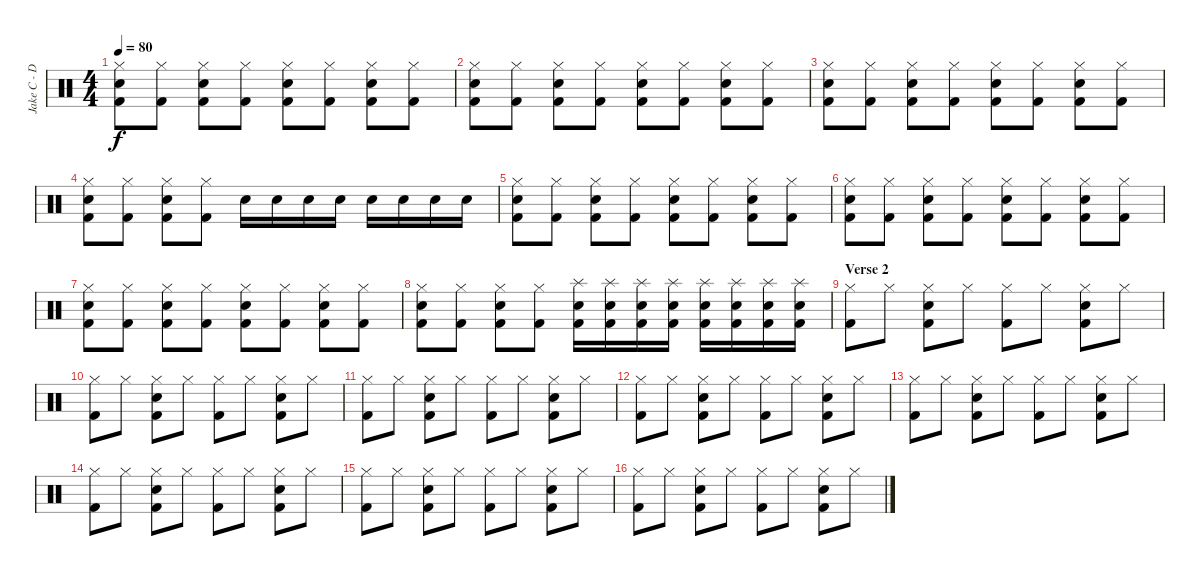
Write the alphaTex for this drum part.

\track ("Jake C - Drums" "Jake C - D") {instrument percussion}
\staff {score}
\articulation defaults
\ts (4 4)
\tempo 80
\clef neutral
\ks c
("Hi-Hat (closed)" "Electric Snare (hit)" "Kick (hit) 2").8{dy f} ("Hi-Hat (closed)" "Kick (hit) 2").8 ("Hi-Hat (closed)" "Electric Snare (hit)" "Kick (hit) 2").8 ("Hi-Hat (closed)" "Kick (hit) 2").8 ("Hi-Hat (closed)" "Electric Snare (hit)" "Kick (hit) 2").8 ("Hi-Hat (closed)" "Kick (hit) 2").8 ("Hi-Hat (closed)" "Electric Snare (hit)" "Kick (hit) 2").8 ("Hi-Hat (closed)" "Kick (hit) 2").8 |
("Hi-Hat (closed)" "Electric Snare (hit)" "Kick (hit) 2").8 ("Hi-Hat (closed)" "Kick (hit) 2").8 ("Hi-Hat (closed)" "Electric Snare (hit)" "Kick (hit) 2").8 ("Hi-Hat (closed)" "Kick (hit) 2").8 ("Hi-Hat (closed)" "Electric Snare (hit)" "Kick (hit) 2").8 ("Hi-Hat (closed)" "Kick (hit) 2").8 ("Hi-Hat (closed)" "Electric Snare (hit)" "Kick (hit) 2").8 ("Hi-Hat (closed)" "Kick (hit) 2").8 |
("Hi-Hat (closed)" "Electric Snare (hit)" "Kick (hit) 2").8 ("Hi-Hat (closed)" "Kick (hit) 2").8 ("Hi-Hat (closed)" "Electric Snare (hit)" "Kick (hit) 2").8 ("Hi-Hat (closed)" "Kick (hit) 2").8 ("Hi-Hat (closed)" "Electric Snare (hit)" "Kick (hit) 2").8 ("Hi-Hat (closed)" "Kick (hit) 2").8 ("Hi-Hat (closed)" "Electric Snare (hit)" "Kick (hit) 2").8 ("Hi-Hat (closed)" "Kick (hit) 2").8 |
("Hi-Hat (closed)" "Electric Snare (hit)" "Kick (hit) 2").8 ("Hi-Hat (closed)" "Kick (hit) 2").8 ("Hi-Hat (closed)" "Electric Snare (hit)" "Kick (hit) 2").8 ("Hi-Hat (closed)" "Kick (hit) 2").8 "Electric Snare (hit)".16 "Electric Snare (hit)".16 "Electric Snare (hit)".16 "Electric Snare (hit)".16 "Electric Snare (hit)".16 "Electric Snare (hit)".16 "Electric Snare (hit)".16 "Electric Snare (hit)".16 |
("Hi-Hat (closed)" "Electric Snare (hit)" "Kick (hit) 2").8 ("Hi-Hat (closed)" "Kick (hit) 2").8 ("Hi-Hat (closed)" "Electric Snare (hit)" "Kick (hit) 2").8 ("Hi-Hat (closed)" "Kick (hit) 2").8 ("Hi-Hat (closed)" "Electric Snare (hit)" "Kick (hit) 2").8 ("Hi-Hat (closed)" "Kick (hit) 2").8 ("Hi-Hat (closed)" "Electric Snare (hit)" "Kick (hit) 2").8 ("Hi-Hat (closed)" "Kick (hit) 2").8 |
("Hi-Hat (closed)" "Electric Snare (hit)" "Kick (hit) 2").8 ("Hi-Hat (closed)" "Kick (hit) 2").8 ("Hi-Hat (closed)" "Electric Snare (hit)" "Kick (hit) 2").8 ("Hi-Hat (closed)" "Kick (hit) 2").8 ("Hi-Hat (closed)" "Electric Snare (hit)" "Kick (hit) 2").8 ("Hi-Hat (closed)" "Kick (hit) 2").8 ("Hi-Hat (closed)" "Electric Snare (hit)" "Kick (hit) 2").8 ("Hi-Hat (closed)" "Kick (hit) 2").8 |
("Hi-Hat (closed)" "Electric Snare (hit)" "Kick (hit) 2").8 ("Hi-Hat (closed)" "Kick (hit) 2").8 ("Hi-Hat (closed)" "Electric Snare (hit)" "Kick (hit) 2").8 ("Hi-Hat (closed)" "Kick (hit) 2").8 ("Hi-Hat (closed)" "Electric Snare (hit)" "Kick (hit) 2").8 ("Hi-Hat (closed)" "Kick (hit) 2").8 ("Hi-Hat (closed)" "Electric Snare (hit)" "Kick (hit) 2").8 ("Hi-Hat (closed)" "Kick (hit) 2").8 |
("Hi-Hat (closed)" "Electric Snare (hit)" "Kick (hit) 2").8 ("Hi-Hat (closed)" "Kick (hit) 2").8 ("Hi-Hat (closed)" "Electric Snare (hit)" "Kick (hit) 2").8 ("Hi-Hat (closed)" "Kick (hit) 2").8 ("Splash (hit)" "Electric Snare (hit)" "Kick (hit) 2").16 ("Splash (hit)" "Electric Snare (hit)" "Kick (hit) 2").16 ("Splash (hit)" "Electric Snare (hit)" "Kick (hit) 2").16 ("Splash (hit)" "Electric Snare (hit)" "Kick (hit) 2").16 ("Splash (hit)" "Electric Snare (hit)" "Kick (hit) 2").16 ("Splash (hit)" "Electric Snare (hit)" "Kick (hit) 2").16 ("Splash (hit)" "Electric Snare (hit)" "Kick (hit) 2").16 ("Splash (hit)" "Electric Snare (hit)" "Kick (hit) 2").16 |
\section ("" "Verse 2")
("Hi-Hat (closed)" "Kick (hit) 2").8 "Hi-Hat (closed)".8 ("Hi-Hat (closed)" "Electric Snare (hit)" "Kick (hit) 2").8 "Hi-Hat (closed)".8 ("Hi-Hat (closed)" "Kick (hit) 2").8 "Hi-Hat (closed)".8 ("Hi-Hat (closed)" "Electric Snare (hit)" "Kick (hit) 2").8 "Hi-Hat (closed)".8 |
("Hi-Hat (closed)" "Kick (hit) 2").8 "Hi-Hat (closed)".8 ("Hi-Hat (closed)" "Electric Snare (hit)" "Kick (hit) 2").8 "Hi-Hat (closed)".8 ("Hi-Hat (closed)" "Kick (hit) 2").8 "Hi-Hat (closed)".8 ("Hi-Hat (closed)" "Electric Snare (hit)" "Kick (hit) 2").8 "Hi-Hat (closed)".8 |
("Hi-Hat (closed)" "Kick (hit) 2").8 "Hi-Hat (closed)".8 ("Hi-Hat (closed)" "Electric Snare (hit)" "Kick (hit) 2").8 "Hi-Hat (closed)".8 ("Hi-Hat (closed)" "Kick (hit) 2").8 "Hi-Hat (closed)".8 ("Hi-Hat (closed)" "Electric Snare (hit)" "Kick (hit) 2").8 "Hi-Hat (closed)".8 |
("Hi-Hat (closed)" "Kick (hit) 2").8 "Hi-Hat (closed)".8 ("Hi-Hat (closed)" "Electric Snare (hit)" "Kick (hit) 2").8 "Hi-Hat (closed)".8 ("Hi-Hat (closed)" "Kick (hit) 2").8 "Hi-Hat (closed)".8 ("Hi-Hat (closed)" "Electric Snare (hit)" "Kick (hit) 2").8 "Hi-Hat (closed)".8 |
("Hi-Hat (closed)" "Kick (hit) 2").8 "Hi-Hat (closed)".8 ("Hi-Hat (closed)" "Electric Snare (hit)" "Kick (hit) 2").8 "Hi-Hat (closed)".8 ("Hi-Hat (closed)" "Kick (hit) 2").8 "Hi-Hat (closed)".8 ("Hi-Hat (closed)" "Electric Snare (hit)" "Kick (hit) 2").8 "Hi-Hat (closed)".8 |
("Hi-Hat (closed)" "Kick (hit) 2").8 "Hi-Hat (closed)".8 ("Hi-Hat (closed)" "Electric Snare (hit)" "Kick (hit) 2").8 "Hi-Hat (closed)".8 ("Hi-Hat (closed)" "Kick (hit) 2").8 "Hi-Hat (closed)".8 ("Hi-Hat (closed)" "Electric Snare (hit)" "Kick (hit) 2").8 "Hi-Hat (closed)".8 |
("Hi-Hat (closed)" "Kick (hit) 2").8 "Hi-Hat (closed)".8 ("Hi-Hat (closed)" "Electric Snare (hit)" "Kick (hit) 2").8 "Hi-Hat (closed)".8 ("Hi-Hat (closed)" "Kick (hit) 2").8 "Hi-Hat (closed)".8 ("Hi-Hat (closed)" "Electric Snare (hit)" "Kick (hit) 2").8 "Hi-Hat (closed)".8 |
("Hi-Hat (closed)" "Kick (hit) 2").8 "Hi-Hat (closed)".8 ("Hi-Hat (closed)" "Electric Snare (hit)" "Kick (hit) 2").8 "Hi-Hat (closed)".8 ("Hi-Hat (closed)" "Kick (hit) 2").8 "Hi-Hat (closed)".8 ("Hi-Hat (closed)" "Electric Snare (hit)" "Kick (hit) 2").8 "Hi-Hat (closed)".8
